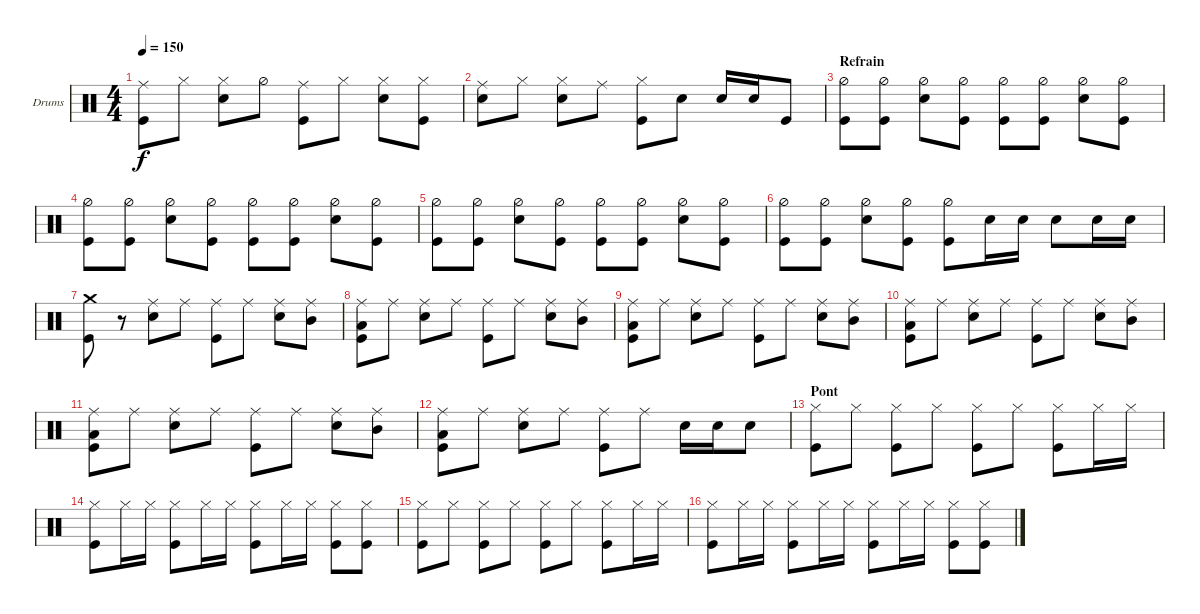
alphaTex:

\bracketExtendMode groupsimilarinstruments
\firstSystemTrackNameOrientation horizontal
\otherSystemsTrackNameOrientation horizontal
\track ("Drumkit" "Drums") {instrument percussion}
\staff {score}
\articulation defaults
\ts (4 4)
\tempo 150
\clef neutral
\ks c
("Kick (hit)" "Ride (middle)").8{dy f} "Hi-Hat (closed)".8 ("Hi-Hat (closed)" "Snare (hit) 2").8 "Hi-Hat (half)".8 ("Kick (hit)" "Ride (middle)").8 "Hi-Hat (closed)".8 ("Hi-Hat (closed)" "Snare (hit) 2").8 ("Hi-Hat (closed)" "Kick (hit)").8 |
("Snare (hit) 2" "Ride (middle)").8 "Hi-Hat (closed)".8 ("Hi-Hat (closed)" "Snare (hit) 2").8 "Ride (middle)".8 ("Hi-Hat (closed)" "Kick (hit)").8 "Snare (hit) 2".8 "Snare (hit) 2".16 "Snare (hit) 2".16 "Kick (hit)".8 |
\section ("" "Refrain")
("Kick (hit)" "Hi-Hat (half)").8 ("Hi-Hat (half)" "Kick (hit)").8 ("Hi-Hat (half)" "Snare (hit) 2").8 ("Hi-Hat (half)" "Kick (hit)").8 ("Hi-Hat (half)" "Kick (hit)").8 ("Hi-Hat (half)" "Kick (hit)").8 ("Hi-Hat (half)" "Snare (hit) 2").8 ("Hi-Hat (half)" "Kick (hit)").8 |
("Hi-Hat (half)" "Kick (hit)").8 ("Hi-Hat (half)" "Kick (hit)").8 ("Hi-Hat (half)" "Snare (hit) 2").8 ("Hi-Hat (half)" "Kick (hit)").8 ("Hi-Hat (half)" "Kick (hit)").8 ("Hi-Hat (half)" "Kick (hit)").8 ("Hi-Hat (half)" "Snare (hit) 2").8 ("Hi-Hat (half)" "Kick (hit)").8 |
("Hi-Hat (half)" "Kick (hit)").8 ("Hi-Hat (half)" "Kick (hit)").8 ("Hi-Hat (half)" "Snare (hit) 2").8 ("Hi-Hat (half)" "Kick (hit)").8 ("Hi-Hat (half)" "Kick (hit)").8 ("Hi-Hat (half)" "Kick (hit)").8 ("Hi-Hat (half)" "Snare (hit) 2").8 ("Hi-Hat (half)" "Kick (hit)").8 |
("Hi-Hat (half)" "Kick (hit)").8 ("Hi-Hat (half)" "Kick (hit)").8 ("Hi-Hat (half)" "Snare (hit) 2").8 ("Hi-Hat (half)" "Kick (hit)").8 ("Hi-Hat (half)" "Kick (hit)").8 "Snare (hit) 2".16 "Snare (hit) 2".16 "Snare (hit) 2".8 "Snare (hit) 2".16 "Snare (hit) 2".16 |
("Kick (hit)" "Crash medium (hit)").8 r.8 ("Snare (hit) 2" "Ride (middle)").8 "Ride (middle)".8 ("Kick (hit)" "Ride (middle)").8 "Ride (middle)".8 ("Snare (hit) 2" "Ride (middle)").8 ("Ride (middle)" "Mid Tom (hit)").8 |
("Kick (hit)" "Ride (middle)" "Low Tom (hit)").8 "Ride (middle)".8 ("Snare (hit) 2" "Ride (middle)").8 "Ride (middle)".8 ("Kick (hit)" "Ride (middle)").8 "Ride (middle)".8 ("Snare (hit) 2" "Ride (middle)").8 ("Ride (middle)" "Mid Tom (hit)").8 |
("Kick (hit)" "Ride (middle)" "Low Tom (hit)").8 "Ride (middle)".8 ("Snare (hit) 2" "Ride (middle)").8 "Ride (middle)".8 ("Kick (hit)" "Ride (middle)").8 "Ride (middle)".8 ("Snare (hit) 2" "Ride (middle)").8 ("Ride (middle)" "Mid Tom (hit)").8 |
("Kick (hit)" "Ride (middle)" "Low Tom (hit)").8 "Ride (middle)".8 ("Snare (hit) 2" "Ride (middle)").8 "Ride (middle)".8 ("Kick (hit)" "Ride (middle)").8 "Ride (middle)".8 ("Snare (hit) 2" "Ride (middle)").8 ("Ride (middle)" "Mid Tom (hit)").8 |
("Kick (hit)" "Ride (middle)" "Low Tom (hit)").8 "Ride (middle)".8 ("Snare (hit) 2" "Ride (middle)").8 "Ride (middle)".8 ("Kick (hit)" "Ride (middle)").8 "Ride (middle)".8 ("Snare (hit) 2" "Ride (middle)").8 ("Ride (middle)" "Mid Tom (hit)").8 |
("Kick (hit)" "Ride (middle)" "Low Tom (hit)").8 "Ride (middle)".8 ("Snare (hit) 2" "Ride (middle)").8 "Ride (middle)".8 ("Kick (hit)" "Ride (middle)").8 "Ride (middle)".8 "Snare (hit) 2".16 "Snare (hit) 2".16 "Snare (hit) 2".8 |
\section ("" "Pont")
("Hi-Hat (closed)" "Kick (hit)").8 "Hi-Hat (closed)".8 ("Hi-Hat (closed)" "Kick (hit)").8 "Hi-Hat (closed)".8 ("Hi-Hat (closed)" "Kick (hit)").8 "Hi-Hat (closed)".8 ("Hi-Hat (closed)" "Kick (hit)").8 "Hi-Hat (closed)".16 "Hi-Hat (closed)".16 |
("Hi-Hat (closed)" "Kick (hit)").8 "Hi-Hat (closed)".16 "Hi-Hat (closed)".16 ("Hi-Hat (closed)" "Kick (hit)").8 "Hi-Hat (closed)".16 "Hi-Hat (closed)".16 ("Hi-Hat (closed)" "Kick (hit)").8 "Hi-Hat (closed)".16 "Hi-Hat (closed)".16 ("Hi-Hat (closed)" "Kick (hit)").8 ("Hi-Hat (closed)" "Kick (hit)").8 |
("Hi-Hat (closed)" "Kick (hit)").8 "Hi-Hat (closed)".8 ("Hi-Hat (closed)" "Kick (hit)").8 "Hi-Hat (closed)".8 ("Hi-Hat (closed)" "Kick (hit)").8 "Hi-Hat (closed)".8 ("Hi-Hat (closed)" "Kick (hit)").8 "Hi-Hat (closed)".16 "Hi-Hat (closed)".16 |
("Hi-Hat (closed)" "Kick (hit)").8 "Hi-Hat (closed)".16 "Hi-Hat (closed)".16 ("Hi-Hat (closed)" "Kick (hit)").8 "Hi-Hat (closed)".16 "Hi-Hat (closed)".16 ("Hi-Hat (closed)" "Kick (hit)").8 "Hi-Hat (closed)".16 "Hi-Hat (closed)".16 ("Hi-Hat (closed)" "Kick (hit)").8 ("Hi-Hat (closed)" "Kick (hit)").8
